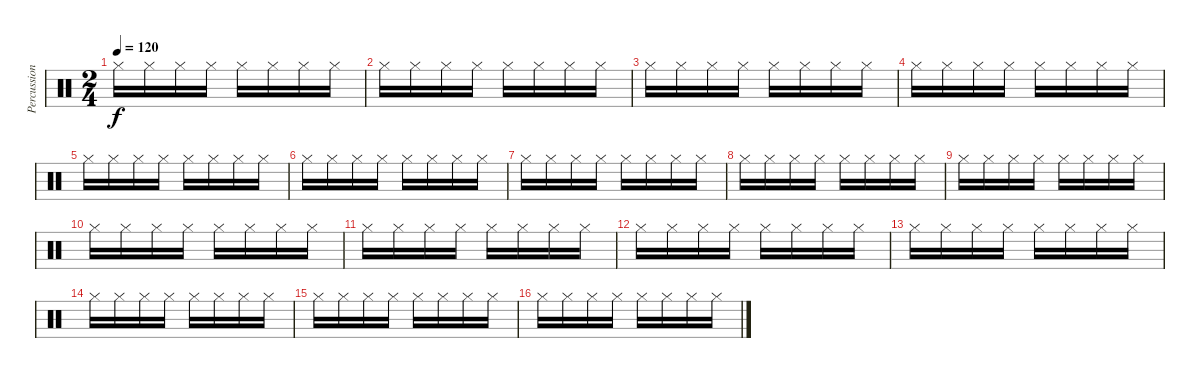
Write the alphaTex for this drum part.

\track ("Percussion" "Percussion") {instrument percussion}
\staff {score}
\articulation defaults
\ts (2 4)
\tempo 120
\clef neutral
\ks c "Hi-Hat (closed)".16{dy f} "Hi-Hat (closed)".16 "Hi-Hat (closed)".16 "Hi-Hat (closed)".16 "Hi-Hat (closed)".16 "Hi-Hat (closed)".16 "Hi-Hat (closed)".16 "Hi-Hat (closed)".16
|
"Hi-Hat (closed)".16 "Hi-Hat (closed)".16 "Hi-Hat (closed)".16 "Hi-Hat (closed)".16 "Hi-Hat (closed)".16 "Hi-Hat (closed)".16 "Hi-Hat (closed)".16 "Hi-Hat (closed)".16 |
"Hi-Hat (closed)".16 "Hi-Hat (closed)".16 "Hi-Hat (closed)".16 "Hi-Hat (closed)".16 "Hi-Hat (closed)".16 "Hi-Hat (closed)".16 "Hi-Hat (closed)".16 "Hi-Hat (closed)".16 |
"Hi-Hat (closed)".16 "Hi-Hat (closed)".16 "Hi-Hat (closed)".16 "Hi-Hat (closed)".16 "Hi-Hat (closed)".16 "Hi-Hat (closed)".16 "Hi-Hat (closed)".16 "Hi-Hat (closed)".16 |
"Hi-Hat (closed)".16 "Hi-Hat (closed)".16 "Hi-Hat (closed)".16 "Hi-Hat (closed)".16 "Hi-Hat (closed)".16 "Hi-Hat (closed)".16 "Hi-Hat (closed)".16 "Hi-Hat (closed)".16 |
"Hi-Hat (closed)".16 "Hi-Hat (closed)".16 "Hi-Hat (closed)".16 "Hi-Hat (closed)".16 "Hi-Hat (closed)".16 "Hi-Hat (closed)".16 "Hi-Hat (closed)".16 "Hi-Hat (closed)".16 |
"Hi-Hat (closed)".16 "Hi-Hat (closed)".16 "Hi-Hat (closed)".16 "Hi-Hat (closed)".16 "Hi-Hat (closed)".16 "Hi-Hat (closed)".16 "Hi-Hat (closed)".16 "Hi-Hat (closed)".16 |
"Hi-Hat (closed)".16 "Hi-Hat (closed)".16 "Hi-Hat (closed)".16 "Hi-Hat (closed)".16 "Hi-Hat (closed)".16 "Hi-Hat (closed)".16 "Hi-Hat (closed)".16 "Hi-Hat (closed)".16 |
"Hi-Hat (closed)".16 "Hi-Hat (closed)".16 "Hi-Hat (closed)".16 "Hi-Hat (closed)".16 "Hi-Hat (closed)".16 "Hi-Hat (closed)".16 "Hi-Hat (closed)".16 "Hi-Hat (closed)".16 |
"Hi-Hat (closed)".16 "Hi-Hat (closed)".16 "Hi-Hat (closed)".16 "Hi-Hat (closed)".16 "Hi-Hat (closed)".16 "Hi-Hat (closed)".16 "Hi-Hat (closed)".16 "Hi-Hat (closed)".16 |
"Hi-Hat (closed)".16 "Hi-Hat (closed)".16 "Hi-Hat (closed)".16 "Hi-Hat (closed)".16 "Hi-Hat (closed)".16 "Hi-Hat (closed)".16 "Hi-Hat (closed)".16 "Hi-Hat (closed)".16 |
"Hi-Hat (closed)".16 "Hi-Hat (closed)".16 "Hi-Hat (closed)".16 "Hi-Hat (closed)".16 "Hi-Hat (closed)".16 "Hi-Hat (closed)".16 "Hi-Hat (closed)".16 "Hi-Hat (closed)".16 |
"Hi-Hat (closed)".16 "Hi-Hat (closed)".16 "Hi-Hat (closed)".16 "Hi-Hat (closed)".16 "Hi-Hat (closed)".16 "Hi-Hat (closed)".16 "Hi-Hat (closed)".16 "Hi-Hat (closed)".16 |
"Hi-Hat (closed)".16 "Hi-Hat (closed)".16 "Hi-Hat (closed)".16 "Hi-Hat (closed)".16 "Hi-Hat (closed)".16 "Hi-Hat (closed)".16 "Hi-Hat (closed)".16 "Hi-Hat (closed)".16 |
"Hi-Hat (closed)".16 "Hi-Hat (closed)".16 "Hi-Hat (closed)".16 "Hi-Hat (closed)".16 "Hi-Hat (closed)".16 "Hi-Hat (closed)".16 "Hi-Hat (closed)".16 "Hi-Hat (closed)".16 |
"Hi-Hat (closed)".16 "Hi-Hat (closed)".16 "Hi-Hat (closed)".16 "Hi-Hat (closed)".16 "Hi-Hat (closed)".16 "Hi-Hat (closed)".16 "Hi-Hat (closed)".16 "Hi-Hat (closed)".16
